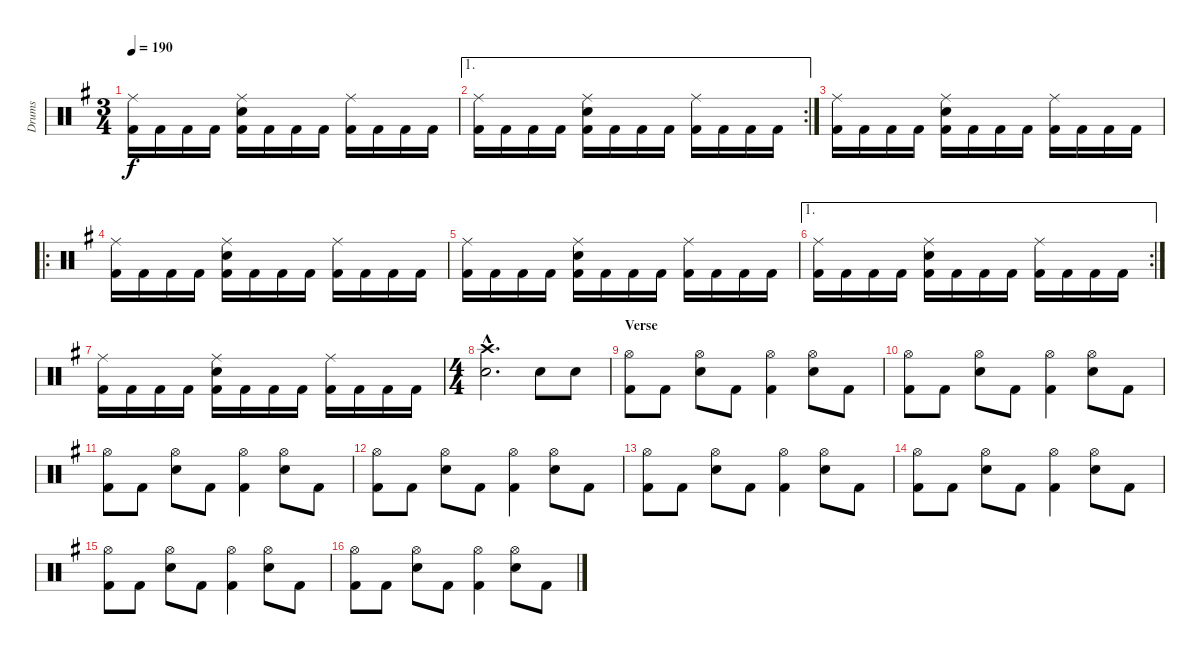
\track ("Drums" "Drums") {instrument percussion}
\staff {score}
\articulation defaults
\ts (3 4)
\tempo 190
\clef neutral
\ks eminor
("Ride (middle)" "Kick (hit) 2").16{dy f} "Kick (hit) 2".16 "Kick (hit) 2".16 "Kick (hit) 2".16 ("Ride (middle)" "Electric Snare (hit)" "Kick (hit) 2").16 "Kick (hit) 2".16 "Kick (hit) 2".16 "Kick (hit) 2".16 ("Ride (middle)" "Kick (hit) 2").16 "Kick (hit) 2".16 "Kick (hit) 2".16 "Kick (hit) 2".16 |
\ae 1
\rc 2
("Ride (middle)" "Kick (hit) 2").16 "Kick (hit) 2".16 "Kick (hit) 2".16 "Kick (hit) 2".16 ("Ride (middle)" "Electric Snare (hit)" "Kick (hit) 2").16 "Kick (hit) 2".16 "Kick (hit) 2".16 "Kick (hit) 2".16 ("Ride (middle)" "Kick (hit) 2").16 "Kick (hit) 2".16 "Kick (hit) 2".16 "Kick (hit) 2".16 |
("Ride (middle)" "Kick (hit) 2").16 "Kick (hit) 2".16 "Kick (hit) 2".16 "Kick (hit) 2".16 ("Ride (middle)" "Electric Snare (hit)" "Kick (hit) 2").16 "Kick (hit) 2".16 "Kick (hit) 2".16 "Kick (hit) 2".16 ("Ride (middle)" "Kick (hit) 2").16 "Kick (hit) 2".16 "Kick (hit) 2".16 "Kick (hit) 2".16 |
\ro
("Ride (middle)" "Kick (hit) 2").16 "Kick (hit) 2".16 "Kick (hit) 2".16 "Kick (hit) 2".16 ("Ride (middle)" "Electric Snare (hit)" "Kick (hit) 2").16 "Kick (hit) 2".16 "Kick (hit) 2".16 "Kick (hit) 2".16 ("Ride (middle)" "Kick (hit) 2").16 "Kick (hit) 2".16 "Kick (hit) 2".16 "Kick (hit) 2".16 |
("Ride (middle)" "Kick (hit) 2").16 "Kick (hit) 2".16 "Kick (hit) 2".16 "Kick (hit) 2".16 ("Ride (middle)" "Electric Snare (hit)" "Kick (hit) 2").16 "Kick (hit) 2".16 "Kick (hit) 2".16 "Kick (hit) 2".16 ("Ride (middle)" "Kick (hit) 2").16 "Kick (hit) 2".16 "Kick (hit) 2".16 "Kick (hit) 2".16 |
\ae 1
\rc 2
("Ride (middle)" "Kick (hit) 2").16 "Kick (hit) 2".16 "Kick (hit) 2".16 "Kick (hit) 2".16 ("Ride (middle)" "Electric Snare (hit)" "Kick (hit) 2").16 "Kick (hit) 2".16 "Kick (hit) 2".16 "Kick (hit) 2".16 ("Ride (middle)" "Kick (hit) 2").16 "Kick (hit) 2".16 "Kick (hit) 2".16 "Kick (hit) 2".16 |
("Ride (middle)" "Kick (hit) 2").16 "Kick (hit) 2".16 "Kick (hit) 2".16 "Kick (hit) 2".16 ("Ride (middle)" "Electric Snare (hit)" "Kick (hit) 2").16 "Kick (hit) 2".16 "Kick (hit) 2".16 "Kick (hit) 2".16 ("Ride (middle)" "Kick (hit) 2").16 "Kick (hit) 2".16 "Kick (hit) 2".16 "Kick (hit) 2".16 |
\ts (4 4)
("Crash high (hit)"{hac} "Electric Snare (hit)"{hac}).2{d} "Electric Snare (hit)".8 "Electric Snare (hit)".8 |
\section ("" "Verse")
("Hi-Hat (open)" "Kick (hit) 2").8 "Kick (hit) 2".8 ("Hi-Hat (open)" "Electric Snare (hit)").8 "Kick (hit) 2".8 ("Hi-Hat (open)" "Kick (hit) 2").4 ("Hi-Hat (open)" "Electric Snare (hit)").8 "Kick (hit) 2".8 |
("Hi-Hat (open)" "Kick (hit) 2").8 "Kick (hit) 2".8 ("Hi-Hat (open)" "Electric Snare (hit)").8 "Kick (hit) 2".8 ("Hi-Hat (open)" "Kick (hit) 2").4 ("Hi-Hat (open)" "Electric Snare (hit)").8 "Kick (hit) 2".8 |
("Hi-Hat (open)" "Kick (hit) 2").8 "Kick (hit) 2".8 ("Hi-Hat (open)" "Electric Snare (hit)").8 "Kick (hit) 2".8 ("Hi-Hat (open)" "Kick (hit) 2").4 ("Hi-Hat (open)" "Electric Snare (hit)").8 "Kick (hit) 2".8 |
("Hi-Hat (open)" "Kick (hit) 2").8 "Kick (hit) 2".8 ("Hi-Hat (open)" "Electric Snare (hit)").8 "Kick (hit) 2".8 ("Hi-Hat (open)" "Kick (hit) 2").4 ("Hi-Hat (open)" "Electric Snare (hit)").8 "Kick (hit) 2".8 |
("Hi-Hat (open)" "Kick (hit) 2").8 "Kick (hit) 2".8 ("Hi-Hat (open)" "Electric Snare (hit)").8 "Kick (hit) 2".8 ("Hi-Hat (open)" "Kick (hit) 2").4 ("Hi-Hat (open)" "Electric Snare (hit)").8 "Kick (hit) 2".8 |
("Hi-Hat (open)" "Kick (hit) 2").8 "Kick (hit) 2".8 ("Hi-Hat (open)" "Electric Snare (hit)").8 "Kick (hit) 2".8 ("Hi-Hat (open)" "Kick (hit) 2").4 ("Hi-Hat (open)" "Electric Snare (hit)").8 "Kick (hit) 2".8 |
("Hi-Hat (open)" "Kick (hit) 2").8 "Kick (hit) 2".8 ("Hi-Hat (open)" "Electric Snare (hit)").8 "Kick (hit) 2".8 ("Hi-Hat (open)" "Kick (hit) 2").4 ("Hi-Hat (open)" "Electric Snare (hit)").8 "Kick (hit) 2".8 |
("Hi-Hat (open)" "Kick (hit) 2").8 "Kick (hit) 2".8 ("Hi-Hat (open)" "Electric Snare (hit)").8 "Kick (hit) 2".8 ("Hi-Hat (open)" "Kick (hit) 2").4 ("Hi-Hat (open)" "Electric Snare (hit)").8 "Kick (hit) 2".8
